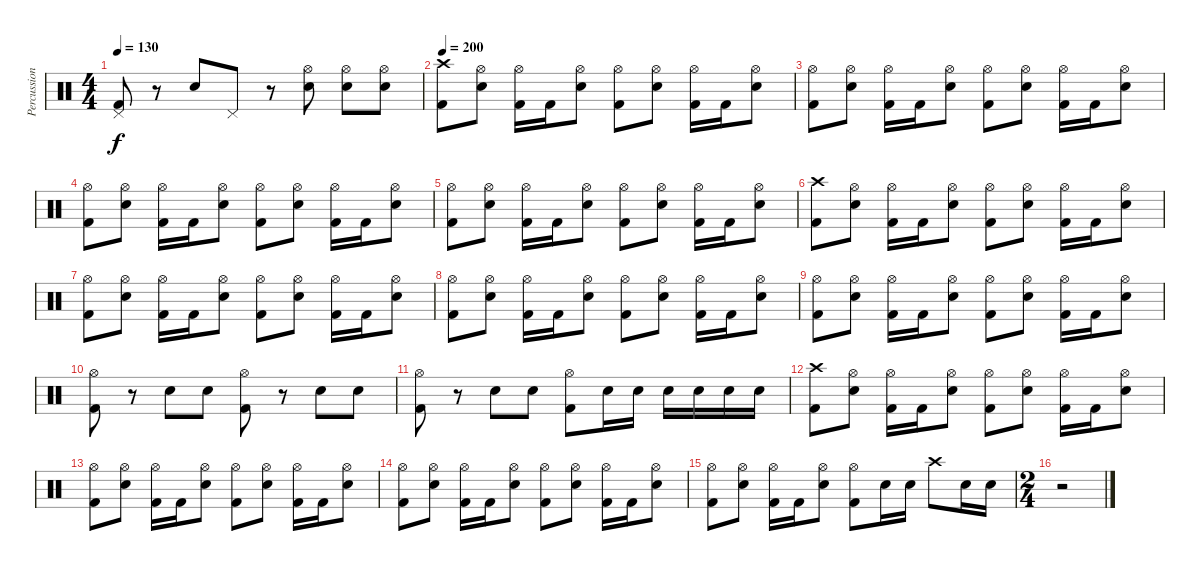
\track ("Percussions" "Percussion") {instrument percussion}
\staff {score}
\articulation defaults
\ts (4 4)
\tempo 130
\clef neutral
\ks c
("Pedal Hi-Hat (hit)" "Kick (hit) 2").8{dy f} r.8 "Electric Snare (hit)".8 "Pedal Hi-Hat (hit)".8 r.8 ("Hi-Hat (open)" "Electric Snare (hit)").8 ("Hi-Hat (open)" "Electric Snare (hit)").8 ("Hi-Hat (open)" "Electric Snare (hit)").8 |
\tempo 200
("Crash high (hit)" "Kick (hit) 2").8 ("Hi-Hat (open)" "Electric Snare (hit)").8 ("Hi-Hat (open)" "Kick (hit) 2").16 "Kick (hit) 2".16 ("Hi-Hat (open)" "Electric Snare (hit)").8 ("Hi-Hat (open)" "Kick (hit) 2").8 ("Hi-Hat (open)" "Electric Snare (hit)").8 ("Hi-Hat (open)" "Kick (hit) 2").16 "Kick (hit) 2".16 ("Hi-Hat (open)" "Electric Snare (hit)").8 |
("Hi-Hat (open)" "Kick (hit) 2").8 ("Hi-Hat (open)" "Electric Snare (hit)").8 ("Hi-Hat (open)" "Kick (hit) 2").16 "Kick (hit) 2".16 ("Hi-Hat (open)" "Electric Snare (hit)").8 ("Hi-Hat (open)" "Kick (hit) 2").8 ("Hi-Hat (open)" "Electric Snare (hit)").8 ("Hi-Hat (open)" "Kick (hit) 2").16 "Kick (hit) 2".16 ("Hi-Hat (open)" "Electric Snare (hit)").8 |
("Hi-Hat (open)" "Kick (hit) 2").8 ("Hi-Hat (open)" "Electric Snare (hit)").8 ("Hi-Hat (open)" "Kick (hit) 2").16 "Kick (hit) 2".16 ("Hi-Hat (open)" "Electric Snare (hit)").8 ("Hi-Hat (open)" "Kick (hit) 2").8 ("Hi-Hat (open)" "Electric Snare (hit)").8 ("Hi-Hat (open)" "Kick (hit) 2").16 "Kick (hit) 2".16 ("Hi-Hat (open)" "Electric Snare (hit)").8 |
("Hi-Hat (open)" "Kick (hit) 2").8 ("Hi-Hat (open)" "Electric Snare (hit)").8 ("Hi-Hat (open)" "Kick (hit) 2").16 "Kick (hit) 2".16 ("Hi-Hat (open)" "Electric Snare (hit)").8 ("Hi-Hat (open)" "Kick (hit) 2").8 ("Hi-Hat (open)" "Electric Snare (hit)").8 ("Hi-Hat (open)" "Kick (hit) 2").16 "Kick (hit) 2".16 ("Hi-Hat (open)" "Electric Snare (hit)").8 |
("Crash high (hit)" "Kick (hit) 2").8 ("Hi-Hat (open)" "Electric Snare (hit)").8 ("Hi-Hat (open)" "Kick (hit) 2").16 "Kick (hit) 2".16 ("Hi-Hat (open)" "Electric Snare (hit)").8 ("Hi-Hat (open)" "Kick (hit) 2").8 ("Hi-Hat (open)" "Electric Snare (hit)").8 ("Hi-Hat (open)" "Kick (hit) 2").16 "Kick (hit) 2".16 ("Hi-Hat (open)" "Electric Snare (hit)").8 |
("Hi-Hat (open)" "Kick (hit) 2").8 ("Hi-Hat (open)" "Electric Snare (hit)").8 ("Hi-Hat (open)" "Kick (hit) 2").16 "Kick (hit) 2".16 ("Hi-Hat (open)" "Electric Snare (hit)").8 ("Hi-Hat (open)" "Kick (hit) 2").8 ("Hi-Hat (open)" "Electric Snare (hit)").8 ("Hi-Hat (open)" "Kick (hit) 2").16 "Kick (hit) 2".16 ("Hi-Hat (open)" "Electric Snare (hit)").8 |
("Hi-Hat (open)" "Kick (hit) 2").8 ("Hi-Hat (open)" "Electric Snare (hit)").8 ("Hi-Hat (open)" "Kick (hit) 2").16 "Kick (hit) 2".16 ("Hi-Hat (open)" "Electric Snare (hit)").8 ("Hi-Hat (open)" "Kick (hit) 2").8 ("Hi-Hat (open)" "Electric Snare (hit)").8 ("Hi-Hat (open)" "Kick (hit) 2").16 "Kick (hit) 2".16 ("Hi-Hat (open)" "Electric Snare (hit)").8 |
("Hi-Hat (open)" "Kick (hit) 2").8 ("Hi-Hat (open)" "Electric Snare (hit)").8 ("Hi-Hat (open)" "Kick (hit) 2").16 "Kick (hit) 2".16 ("Hi-Hat (open)" "Electric Snare (hit)").8 ("Hi-Hat (open)" "Kick (hit) 2").8 ("Hi-Hat (open)" "Electric Snare (hit)").8 ("Hi-Hat (open)" "Kick (hit) 2").16 "Kick (hit) 2".16 ("Hi-Hat (open)" "Electric Snare (hit)").8 |
("Hi-Hat (open)" "Kick (hit) 2").8 r.8 "Electric Snare (hit)".8 "Electric Snare (hit)".8 ("Hi-Hat (open)" "Kick (hit) 2").8 r.8 "Electric Snare (hit)".8 "Electric Snare (hit)".8 |
("Hi-Hat (open)" "Kick (hit) 2").8 r.8 "Electric Snare (hit)".8 "Electric Snare (hit)".8 ("Hi-Hat (open)" "Kick (hit) 2").8 "Electric Snare (hit)".16 "Electric Snare (hit)".16 "Electric Snare (hit)".16 "Electric Snare (hit)".16 "Electric Snare (hit)".16 "Electric Snare (hit)".16 |
("Crash high (hit)" "Kick (hit) 2").8 ("Hi-Hat (open)" "Electric Snare (hit)").8 ("Hi-Hat (open)" "Kick (hit) 2").16 "Kick (hit) 2".16 ("Hi-Hat (open)" "Electric Snare (hit)").8 ("Hi-Hat (open)" "Kick (hit) 2").8 ("Hi-Hat (open)" "Electric Snare (hit)").8 ("Hi-Hat (open)" "Kick (hit) 2").16 "Kick (hit) 2".16 ("Hi-Hat (open)" "Electric Snare (hit)").8 |
("Hi-Hat (open)" "Kick (hit) 2").8 ("Hi-Hat (open)" "Electric Snare (hit)").8 ("Hi-Hat (open)" "Kick (hit) 2").16 "Kick (hit) 2".16 ("Hi-Hat (open)" "Electric Snare (hit)").8 ("Hi-Hat (open)" "Kick (hit) 2").8 ("Hi-Hat (open)" "Electric Snare (hit)").8 ("Hi-Hat (open)" "Kick (hit) 2").16 "Kick (hit) 2".16 ("Hi-Hat (open)" "Electric Snare (hit)").8 |
("Hi-Hat (open)" "Kick (hit) 2").8 ("Hi-Hat (open)" "Electric Snare (hit)").8 ("Hi-Hat (open)" "Kick (hit) 2").16 "Kick (hit) 2".16 ("Hi-Hat (open)" "Electric Snare (hit)").8 ("Hi-Hat (open)" "Kick (hit) 2").8 ("Hi-Hat (open)" "Electric Snare (hit)").8 ("Hi-Hat (open)" "Kick (hit) 2").16 "Kick (hit) 2".16 ("Hi-Hat (open)" "Electric Snare (hit)").8 |
("Hi-Hat (open)" "Kick (hit) 2").8 ("Hi-Hat (open)" "Electric Snare (hit)").8 ("Hi-Hat (open)" "Kick (hit) 2").16 "Kick (hit) 2".16 ("Hi-Hat (open)" "Electric Snare (hit)").8 ("Hi-Hat (open)" "Kick (hit) 2").8 "Electric Snare (hit)".16 "Electric Snare (hit)".16 "Crash high (hit)".8 "Electric Snare (hit)".16 "Electric Snare (hit)".16 |
\ts (2 4)
r.2
